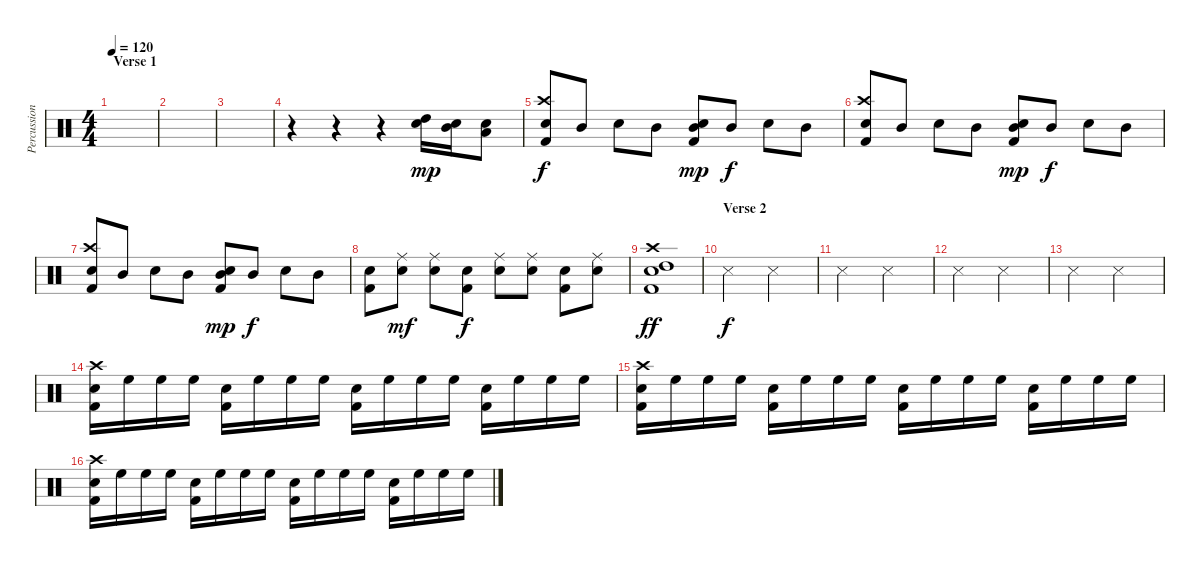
\track ("Percussion" "Percussion") {instrument percussion}
\staff {score}
\articulation defaults
\ts (4 4)
\section ("" "Verse 1")
\tempo 120
\clef neutral
\ks c
|
|
|
r.4 r.4 r.4 ("Snare (hit) 2" "High Tom (hit)").16{dy mp} ("Snare (hit) 2" "Mid Tom (hit)").16 ("Snare (hit) 2" "Low Tom (hit)").8 |
("Snare (hit) 2" "Crash high (hit)" "Kick (hit) 2").8{dy f} "Mid Tom (hit)".8 "Snare (hit) 2".8 "Mid Tom (hit)".8 ("Mid Tom (hit)" "Snare (hit) 2" "Kick (hit) 2").8{dy mp} "Mid Tom (hit)".8{dy f} "Snare (hit) 2".8 "Mid Tom (hit)".8 |
("Snare (hit) 2" "Crash high (hit)" "Kick (hit) 2").8 "Mid Tom (hit)".8 "Snare (hit) 2".8 "Mid Tom (hit)".8 ("Mid Tom (hit)" "Snare (hit) 2" "Kick (hit) 2").8{dy mp} "Mid Tom (hit)".8{dy f} "Snare (hit) 2".8 "Mid Tom (hit)".8 |
("Snare (hit) 2" "Crash high (hit)" "Kick (hit) 2").8 "Mid Tom (hit)".8 "Snare (hit) 2".8 "Mid Tom (hit)".8 ("Mid Tom (hit)" "Snare (hit) 2" "Kick (hit) 2").8{dy mp} "Mid Tom (hit)".8{dy f} "Snare (hit) 2".8 "Mid Tom (hit)".8 |
("Snare (hit) 2" "Kick (hit) 2").8 ("Snare (hit) 2" "Ride (middle)").8{dy mf} ("Snare (hit) 2" "Ride (middle)").8 ("Snare (hit) 2" "Kick (hit) 2").8{dy f} ("Snare (hit) 2" "Ride (middle)").8 ("Snare (hit) 2" "Ride (middle)").8 ("Snare (hit) 2" "Kick (hit) 2").8 ("Snare (hit) 2" "Ride (middle)").8 |
("Crash high (hit)" "Kick (hit) 2" "High Tom (hit)" "Snare (hit) 2").1{dy ff} |
\section ("" "Verse 2")
"Snare (side stick) 3".2{dy f} "Snare (side stick) 3".2 |
"Snare (side stick) 3".2 "Snare (side stick) 3".2 |
"Snare (side stick) 3".2 "Snare (side stick) 3".2 |
"Snare (side stick) 3".2 "Snare (side stick) 3".2 |
("Crash high (hit)" "Kick (hit) 2" "Snare (hit) 2").16{volume 8} "High Floor Tom (hit)".16 "High Floor Tom (hit)".16 "High Floor Tom (hit)".16 ("Kick (hit) 2" "Snare (hit) 2").16 "High Floor Tom (hit)".16 "High Floor Tom (hit)".16 "High Floor Tom (hit)".16 ("Kick (hit) 2" "Snare (hit) 2").16 "High Floor Tom (hit)".16 "High Floor Tom (hit)".16 "High Floor Tom (hit)".16 ("Kick (hit) 2" "Snare (hit) 2").16 "High Floor Tom (hit)".16 "High Floor Tom (hit)".16 "High Floor Tom (hit)".16 |
("Crash high (hit)" "Kick (hit) 2" "Snare (hit) 2").16{volume 8} "High Floor Tom (hit)".16 "High Floor Tom (hit)".16 "High Floor Tom (hit)".16 ("Kick (hit) 2" "Snare (hit) 2").16 "High Floor Tom (hit)".16 "High Floor Tom (hit)".16 "High Floor Tom (hit)".16 ("Kick (hit) 2" "Snare (hit) 2").16 "High Floor Tom (hit)".16 "High Floor Tom (hit)".16 "High Floor Tom (hit)".16 ("Kick (hit) 2" "Snare (hit) 2").16 "High Floor Tom (hit)".16 "High Floor Tom (hit)".16 "High Floor Tom (hit)".16 |
("Crash high (hit)" "Kick (hit) 2" "Snare (hit) 2").16{volume 8} "High Floor Tom (hit)".16 "High Floor Tom (hit)".16 "High Floor Tom (hit)".16 ("Kick (hit) 2" "Snare (hit) 2").16 "High Floor Tom (hit)".16 "High Floor Tom (hit)".16 "High Floor Tom (hit)".16 ("Kick (hit) 2" "Snare (hit) 2").16 "High Floor Tom (hit)".16 "High Floor Tom (hit)".16 "High Floor Tom (hit)".16 ("Kick (hit) 2" "Snare (hit) 2").16 "High Floor Tom (hit)".16 "High Floor Tom (hit)".16 "High Floor Tom (hit)".16
